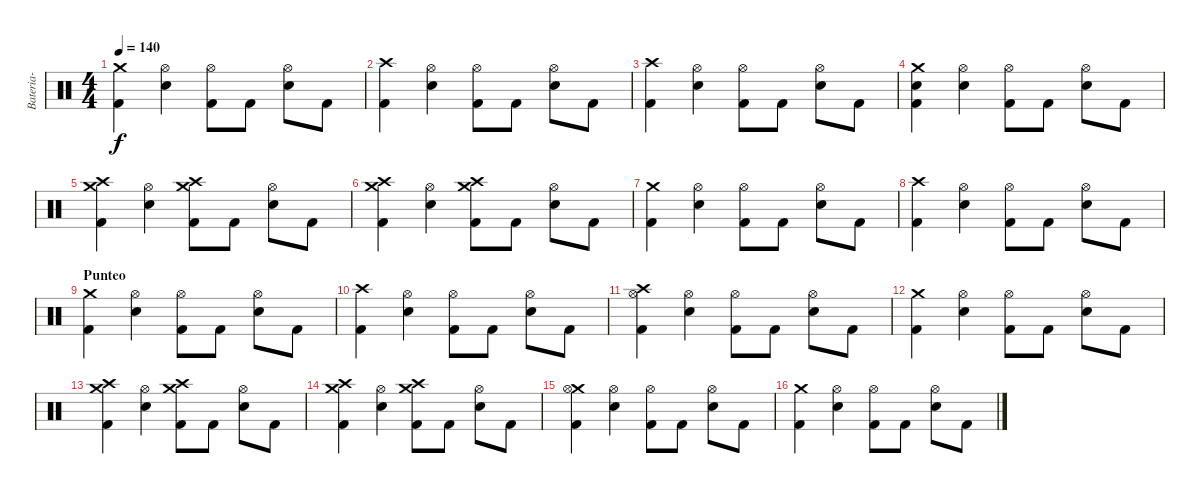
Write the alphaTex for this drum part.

\track ("Bateria-" "Bateria-") {instrument percussion}
\staff {score}
\articulation defaults
\ts (4 4)
\tempo 140
\clef neutral
\ks c
("Crash medium (hit)" "Kick (hit) 2").4{dy f} ("Hi-Hat (open)" "Electric Snare (hit)").4 ("Hi-Hat (open)" "Kick (hit) 2").8 "Kick (hit) 2".8 ("Hi-Hat (open)" "Electric Snare (hit)").8 "Kick (hit) 2".8 |
("Crash high (hit)" "Kick (hit) 2").4 ("Hi-Hat (open)" "Electric Snare (hit)").4 ("Hi-Hat (open)" "Kick (hit) 2").8 "Kick (hit) 2".8 ("Hi-Hat (open)" "Electric Snare (hit)").8 "Kick (hit) 2".8 |
("Crash high (hit)" "Kick (hit) 2").4 ("Hi-Hat (open)" "Electric Snare (hit)").4 ("Hi-Hat (open)" "Kick (hit) 2").8 "Kick (hit) 2".8 ("Hi-Hat (open)" "Electric Snare (hit)").8 "Kick (hit) 2".8 |
("Crash medium (hit)" "Electric Snare (hit)" "Kick (hit) 2").4 ("Hi-Hat (open)" "Electric Snare (hit)").4 ("Hi-Hat (open)" "Kick (hit) 2").8 "Kick (hit) 2".8 ("Hi-Hat (open)" "Electric Snare (hit)").8 "Kick (hit) 2".8 |
("Crash medium (hit)" "Crash high (hit)" "Kick (hit) 2").4 ("Hi-Hat (open)" "Electric Snare (hit)").4 ("Crash medium (hit)" "Crash high (hit)" "Kick (hit) 2").8 "Kick (hit) 2".8 ("Hi-Hat (open)" "Electric Snare (hit)").8 "Kick (hit) 2".8 |
("Crash medium (hit)" "Crash high (hit)" "Kick (hit) 2").4 ("Hi-Hat (open)" "Electric Snare (hit)").4 ("Crash medium (hit)" "Crash high (hit)" "Kick (hit) 2").8 "Kick (hit) 2".8 ("Hi-Hat (open)" "Electric Snare (hit)").8 "Kick (hit) 2".8 |
("Crash medium (hit)" "Kick (hit) 2").4 ("Hi-Hat (open)" "Electric Snare (hit)").4 ("Hi-Hat (open)" "Kick (hit) 2").8 "Kick (hit) 2".8 ("Hi-Hat (open)" "Electric Snare (hit)").8 "Kick (hit) 2".8 |
("Crash high (hit)" "Kick (hit) 2").4 ("Hi-Hat (open)" "Electric Snare (hit)").4 ("Hi-Hat (open)" "Kick (hit) 2").8 "Kick (hit) 2".8 ("Hi-Hat (open)" "Electric Snare (hit)").8 "Kick (hit) 2".8 |
\section ("" "Punteo")
("Crash medium (hit)" "Kick (hit) 2").4 ("Hi-Hat (open)" "Electric Snare (hit)").4 ("Hi-Hat (open)" "Kick (hit) 2").8 "Kick (hit) 2".8 ("Hi-Hat (open)" "Electric Snare (hit)").8 "Kick (hit) 2".8 |
("Crash high (hit)" "Kick (hit) 2").4 ("Hi-Hat (open)" "Electric Snare (hit)").4 ("Hi-Hat (open)" "Kick (hit) 2").8 "Kick (hit) 2".8 ("Hi-Hat (open)" "Electric Snare (hit)").8 "Kick (hit) 2".8 |
("Crash high (hit)" "Hi-Hat (open)" "Kick (hit) 2").4 ("Hi-Hat (open)" "Electric Snare (hit)").4 ("Hi-Hat (open)" "Kick (hit) 2").8 "Kick (hit) 2".8 ("Hi-Hat (open)" "Electric Snare (hit)").8 "Kick (hit) 2".8 |
("Crash medium (hit)" "Kick (hit) 2").4 ("Hi-Hat (open)" "Electric Snare (hit)").4 ("Hi-Hat (open)" "Kick (hit) 2").8 "Kick (hit) 2".8 ("Hi-Hat (open)" "Electric Snare (hit)").8 "Kick (hit) 2".8 |
("Crash medium (hit)" "Crash high (hit)" "Kick (hit) 2").4 ("Hi-Hat (open)" "Electric Snare (hit)").4 ("Crash medium (hit)" "Crash high (hit)" "Kick (hit) 2").8 "Kick (hit) 2".8 ("Hi-Hat (open)" "Electric Snare (hit)").8 "Kick (hit) 2".8 |
("Crash medium (hit)" "Crash high (hit)" "Kick (hit) 2").4 ("Hi-Hat (open)" "Electric Snare (hit)").4 ("Crash medium (hit)" "Crash high (hit)" "Kick (hit) 2").8 "Kick (hit) 2".8 ("Hi-Hat (open)" "Electric Snare (hit)").8 "Kick (hit) 2".8 |
("Crash medium (hit)" "Hi-Hat (open)" "Kick (hit) 2").4 ("Hi-Hat (open)" "Electric Snare (hit)").4 ("Hi-Hat (open)" "Kick (hit) 2").8 "Kick (hit) 2".8 ("Hi-Hat (open)" "Electric Snare (hit)").8 "Kick (hit) 2".8 |
("Crash medium (hit)" "Kick (hit) 2").4 ("Hi-Hat (open)" "Electric Snare (hit)").4 ("Hi-Hat (open)" "Kick (hit) 2").8 "Kick (hit) 2".8 ("Hi-Hat (open)" "Electric Snare (hit)").8 "Kick (hit) 2".8
